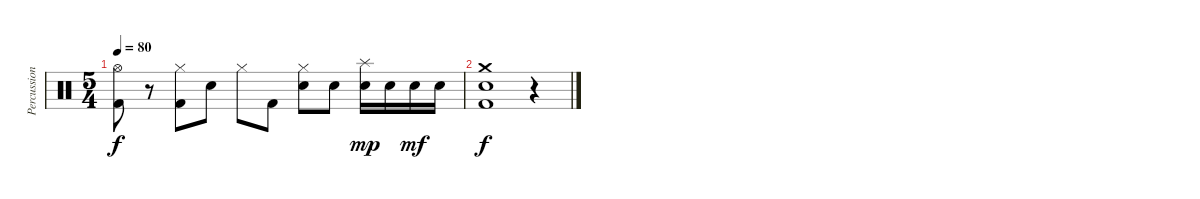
\track ("Percussion" "Percussion") {instrument percussion}
\staff {score}
\articulation defaults
\ts (5 4)
\tempo 80
\clef neutral
\ks c
("Hi-Hat (open)" "Kick (hit) 2").8{dy f} r.8 ("Hi-Hat (closed)" "Kick (hit) 2").8 "Electric Snare (hit)".8 "Hi-Hat (closed)".8 "Kick (hit) 2".8 ("Hi-Hat (closed)" "Electric Snare (hit)").8 "Electric Snare (hit)".8 ("Splash (hit)" "Electric Snare (hit)").16{dy mp} "Electric Snare (hit)".16 "Electric Snare (hit)".16{dy mf} "Electric Snare (hit)".16 |
("Crash medium (hit)" "Electric Snare (hit)" "Kick (hit) 2").1{dy f} r.4
